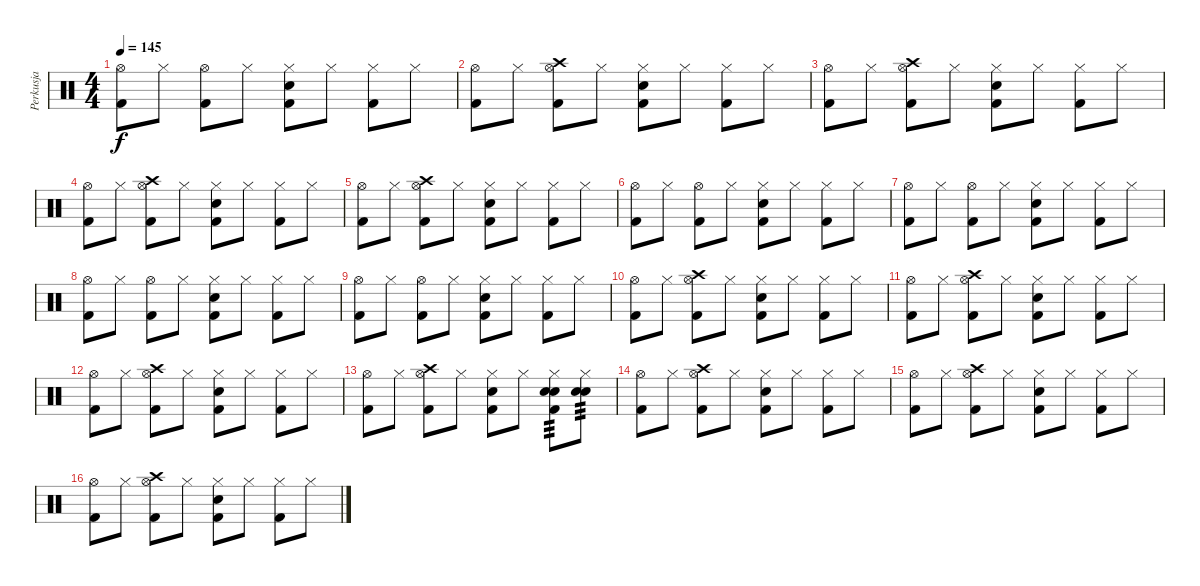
\track ("Perkusja" "Perkusja") {instrument percussion}
\staff {score}
\articulation defaults
\ts (4 4)
\tempo 145
\clef neutral
\ks c
("Hi-Hat (open)" "Kick (hit) 2").8{dy f} "Hi-Hat (closed)".8 ("Hi-Hat (open)" "Kick (hit) 2").8 "Hi-Hat (closed)".8 ("Hi-Hat (closed)" "Electric Snare (hit)" "Kick (hit) 2").8 "Hi-Hat (closed)".8 ("Hi-Hat (closed)" "Kick (hit) 2").8 "Hi-Hat (closed)".8 |
("Hi-Hat (open)" "Kick (hit) 2").8 "Hi-Hat (closed)".8 ("Hi-Hat (open)" "Crash high (hit)" "Kick (hit) 2").8 "Hi-Hat (closed)".8 ("Hi-Hat (closed)" "Electric Snare (hit)" "Kick (hit) 2").8 "Hi-Hat (closed)".8 ("Hi-Hat (closed)" "Kick (hit) 2").8 "Hi-Hat (closed)".8 |
("Hi-Hat (open)" "Kick (hit) 2").8 "Hi-Hat (closed)".8 ("Hi-Hat (open)" "Crash high (hit)" "Kick (hit) 2").8 "Hi-Hat (closed)".8 ("Hi-Hat (closed)" "Electric Snare (hit)" "Kick (hit) 2").8 "Hi-Hat (closed)".8 ("Hi-Hat (closed)" "Kick (hit) 2").8 "Hi-Hat (closed)".8 |
("Hi-Hat (open)" "Kick (hit) 2").8 "Hi-Hat (closed)".8 ("Hi-Hat (open)" "Crash high (hit)" "Kick (hit) 2").8 "Hi-Hat (closed)".8 ("Hi-Hat (closed)" "Electric Snare (hit)" "Kick (hit) 2").8 "Hi-Hat (closed)".8 ("Hi-Hat (closed)" "Kick (hit) 2").8 "Hi-Hat (closed)".8 |
("Hi-Hat (open)" "Kick (hit) 2").8 "Hi-Hat (closed)".8 ("Hi-Hat (open)" "Crash high (hit)" "Kick (hit) 2").8 "Hi-Hat (closed)".8 ("Hi-Hat (closed)" "Electric Snare (hit)" "Kick (hit) 2").8 "Hi-Hat (closed)".8 ("Hi-Hat (closed)" "Kick (hit) 2").8 "Hi-Hat (closed)".8 |
("Hi-Hat (open)" "Kick (hit) 2").8 "Hi-Hat (closed)".8 ("Hi-Hat (open)" "Kick (hit) 2").8 "Hi-Hat (closed)".8 ("Hi-Hat (closed)" "Electric Snare (hit)" "Kick (hit) 2").8 "Hi-Hat (closed)".8 ("Hi-Hat (closed)" "Kick (hit) 2").8 "Hi-Hat (closed)".8 |
("Hi-Hat (open)" "Kick (hit) 2").8 "Hi-Hat (closed)".8 ("Hi-Hat (open)" "Kick (hit) 2").8 "Hi-Hat (closed)".8 ("Hi-Hat (closed)" "Electric Snare (hit)" "Kick (hit) 2").8 "Hi-Hat (closed)".8 ("Hi-Hat (closed)" "Kick (hit) 2").8 "Hi-Hat (closed)".8 |
("Hi-Hat (open)" "Kick (hit) 2").8 "Hi-Hat (closed)".8 ("Hi-Hat (open)" "Kick (hit) 2").8 "Hi-Hat (closed)".8 ("Hi-Hat (closed)" "Electric Snare (hit)" "Kick (hit) 2").8 "Hi-Hat (closed)".8 ("Hi-Hat (closed)" "Kick (hit) 2").8 "Hi-Hat (closed)".8 |
("Hi-Hat (open)" "Kick (hit) 2").8 "Hi-Hat (closed)".8 ("Hi-Hat (open)" "Kick (hit) 2").8 "Hi-Hat (closed)".8 ("Hi-Hat (closed)" "Electric Snare (hit)" "Kick (hit) 2").8 "Hi-Hat (closed)".8 ("Hi-Hat (closed)" "Kick (hit) 2").8 "Hi-Hat (closed)".8 |
("Hi-Hat (open)" "Kick (hit) 2").8 "Hi-Hat (closed)".8 ("Hi-Hat (open)" "Crash high (hit)" "Kick (hit) 2").8 "Hi-Hat (closed)".8 ("Hi-Hat (closed)" "Electric Snare (hit)" "Kick (hit) 2").8 "Hi-Hat (closed)".8 ("Hi-Hat (closed)" "Kick (hit) 2").8 "Hi-Hat (closed)".8 |
("Hi-Hat (open)" "Kick (hit) 2").8 "Hi-Hat (closed)".8 ("Hi-Hat (open)" "Crash high (hit)" "Kick (hit) 2").8 "Hi-Hat (closed)".8 ("Hi-Hat (closed)" "Electric Snare (hit)" "Kick (hit) 2").8 "Hi-Hat (closed)".8 ("Hi-Hat (closed)" "Kick (hit) 2").8 "Hi-Hat (closed)".8 |
("Hi-Hat (open)" "Kick (hit) 2").8 "Hi-Hat (closed)".8 ("Hi-Hat (open)" "Crash high (hit)" "Kick (hit) 2").8 "Hi-Hat (closed)".8 ("Hi-Hat (closed)" "Electric Snare (hit)" "Kick (hit) 2").8 "Hi-Hat (closed)".8 ("Hi-Hat (closed)" "Kick (hit) 2").8 "Hi-Hat (closed)".8 |
("Hi-Hat (open)" "Kick (hit) 2").8 "Hi-Hat (closed)".8 ("Hi-Hat (open)" "Crash high (hit)" "Kick (hit) 2").8 "Hi-Hat (closed)".8 ("Hi-Hat (closed)" "Electric Snare (hit)" "Kick (hit) 2").8 "Hi-Hat (closed)".8 ("Hi-Hat (closed)" "Electric Snare (hit)" "Electric Snare (hit)" "Kick (hit) 2").8{tp 3} ("Hi-Hat (closed)" "Electric Snare (hit)" "Electric Snare (hit)").8{tp 3} |
("Hi-Hat (open)" "Kick (hit) 2").8 "Hi-Hat (closed)".8 ("Hi-Hat (open)" "Crash high (hit)" "Kick (hit) 2").8 "Hi-Hat (closed)".8 ("Hi-Hat (closed)" "Electric Snare (hit)" "Kick (hit) 2").8 "Hi-Hat (closed)".8 ("Hi-Hat (closed)" "Kick (hit) 2").8 "Hi-Hat (closed)".8 |
("Hi-Hat (open)" "Kick (hit) 2").8 "Hi-Hat (closed)".8 ("Hi-Hat (open)" "Crash high (hit)" "Kick (hit) 2").8 "Hi-Hat (closed)".8 ("Hi-Hat (closed)" "Electric Snare (hit)" "Kick (hit) 2").8 "Hi-Hat (closed)".8 ("Hi-Hat (closed)" "Kick (hit) 2").8 "Hi-Hat (closed)".8 |
("Hi-Hat (open)" "Kick (hit) 2").8 "Hi-Hat (closed)".8 ("Hi-Hat (open)" "Crash high (hit)" "Kick (hit) 2").8 "Hi-Hat (closed)".8 ("Hi-Hat (closed)" "Electric Snare (hit)" "Kick (hit) 2").8 "Hi-Hat (closed)".8 ("Hi-Hat (closed)" "Kick (hit) 2").8 "Hi-Hat (closed)".8
